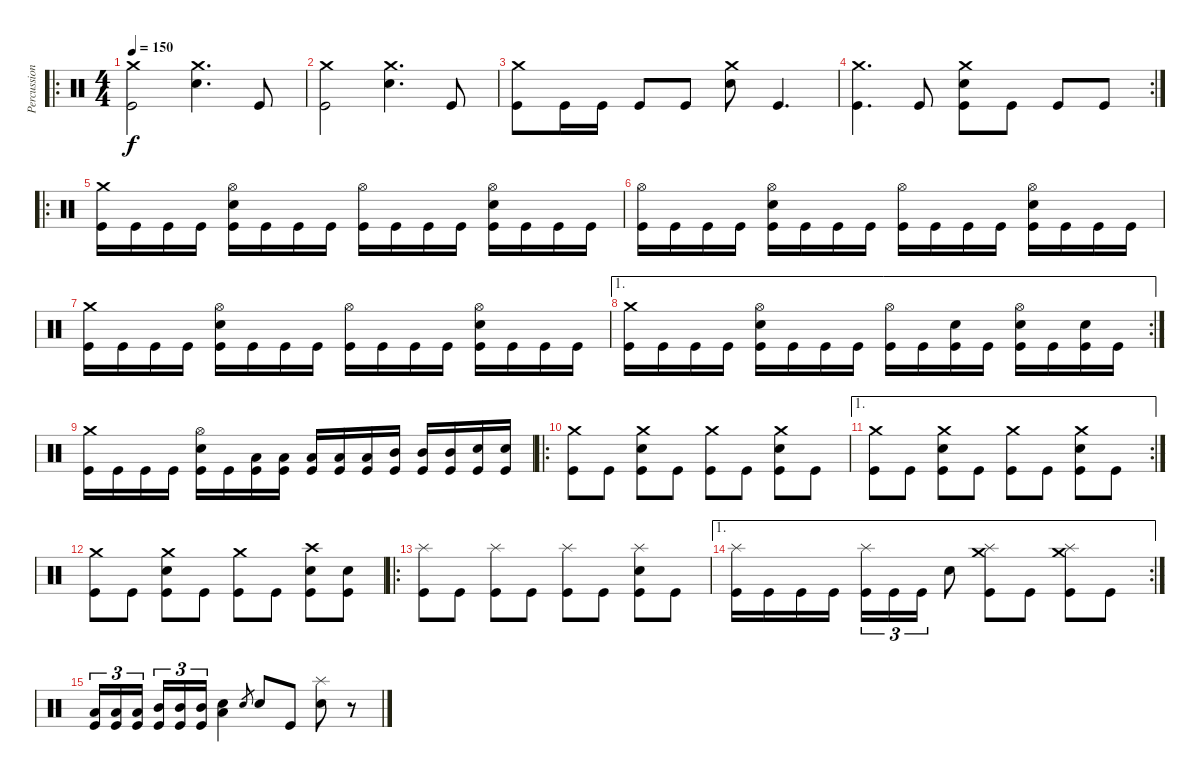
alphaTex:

\track ("Percussion" "Percussion") {instrument percussion}
\staff {score}
\articulation defaults
\ro
\ts (4 4)
\tempo 150
\clef neutral
\ks c
("Crash medium (hit)" "Kick (hit)").2{dy f} ("Crash medium (hit)" "Electric Snare (hit)").4{d} "Kick (hit)".8 |
("Crash medium (hit)" "Kick (hit)").2 ("Crash medium (hit)" "Electric Snare (hit)").4{d} "Kick (hit)".8 |
("Crash medium (hit)" "Kick (hit)").8 "Kick (hit)".16 "Kick (hit)".16 "Kick (hit)".8 "Kick (hit)".8 ("Crash medium (hit)" "Electric Snare (hit)").8 "Kick (hit)".4{d} |
\rc 2
("Crash medium (hit)" "Kick (hit)").4{d} "Kick (hit)".8 ("Crash medium (hit)" "Electric Snare (hit)" "Kick (hit)").8 "Kick (hit)".8 "Kick (hit)".8 "Kick (hit)".8 |
\ro
("Crash medium (hit)" "Kick (hit)").16 "Kick (hit)".16 "Kick (hit)".16 "Kick (hit)".16 ("Hi-Hat (open)" "Electric Snare (hit)" "Kick (hit)").16 "Kick (hit)".16 "Kick (hit)".16 "Kick (hit)".16 ("Hi-Hat (open)" "Kick (hit)").16 "Kick (hit)".16 "Kick (hit)".16 "Kick (hit)".16 ("Hi-Hat (open)" "Electric Snare (hit)" "Kick (hit)").16 "Kick (hit)".16 "Kick (hit)".16 "Kick (hit)".16 |
("Hi-Hat (open)" "Kick (hit)").16 "Kick (hit)".16 "Kick (hit)".16 "Kick (hit)".16 ("Hi-Hat (open)" "Electric Snare (hit)" "Kick (hit)").16 "Kick (hit)".16 "Kick (hit)".16 "Kick (hit)".16 ("Hi-Hat (open)" "Kick (hit)").16 "Kick (hit)".16 "Kick (hit)".16 "Kick (hit)".16 ("Hi-Hat (open)" "Electric Snare (hit)" "Kick (hit)").16 "Kick (hit)".16 "Kick (hit)".16 "Kick (hit)".16 |
("Crash medium (hit)" "Kick (hit)").16 "Kick (hit)".16 "Kick (hit)".16 "Kick (hit)".16 ("Hi-Hat (open)" "Electric Snare (hit)" "Kick (hit)").16 "Kick (hit)".16 "Kick (hit)".16 "Kick (hit)".16 ("Hi-Hat (open)" "Kick (hit)").16 "Kick (hit)".16 "Kick (hit)".16 "Kick (hit)".16 ("Hi-Hat (open)" "Electric Snare (hit)" "Kick (hit)").16 "Kick (hit)".16 "Kick (hit)".16 "Kick (hit)".16 |
\ae 1
\rc 2
("Crash medium (hit)" "Kick (hit)").16 "Kick (hit)".16 "Kick (hit)".16 "Kick (hit)".16 ("Hi-Hat (open)" "Electric Snare (hit)" "Kick (hit)").16 "Kick (hit)".16 "Kick (hit)".16 "Kick (hit)".16 ("Hi-Hat (open)" "Kick (hit)").16 "Kick (hit)".16 ("Electric Snare (hit)" "Kick (hit)").16 "Kick (hit)".16 ("Hi-Hat (open)" "Electric Snare (hit)" "Kick (hit)").16 "Kick (hit)".16 ("Electric Snare (hit)" "Kick (hit)").16 "Kick (hit)".16 |
("Crash medium (hit)" "Kick (hit)").16 "Kick (hit)".16 "Kick (hit)".16 "Kick (hit)".16 ("Hi-Hat (open)" "Electric Snare (hit)" "Kick (hit)").16 "Kick (hit)".16 ("Low Tom (hit)" "Kick (hit)").16 ("Low Tom (hit)" "Kick (hit)").16 ("Low Tom (hit)" "Kick (hit)").16 ("Low Tom (hit)" "Kick (hit)").16 ("Low Tom (hit)" "Kick (hit)").16 ("Mid Tom (hit)" "Kick (hit)").16 ("Mid Tom (hit)" "Kick (hit)").16 ("Mid Tom (hit)" "Kick (hit)").16 ("Electric Snare (hit)" "Kick (hit)").16 ("Electric Snare (hit)" "Kick (hit)").16 |
\ro
("Crash medium (hit)" "Kick (hit)").8 "Kick (hit)".8 ("Crash medium (hit)" "Electric Snare (hit)" "Kick (hit)").8 "Kick (hit)".8 ("Crash medium (hit)" "Kick (hit)").8 "Kick (hit)".8 ("Crash medium (hit)" "Electric Snare (hit)" "Kick (hit)").8 "Kick (hit)".8 |
\ae 1
\rc 2
("Crash medium (hit)" "Kick (hit)").8 "Kick (hit)".8 ("Crash medium (hit)" "Electric Snare (hit)" "Kick (hit)").8 "Kick (hit)".8 ("Crash medium (hit)" "Kick (hit)").8 "Kick (hit)".8 ("Crash medium (hit)" "Electric Snare (hit)" "Kick (hit)").8 "Kick (hit)".8 |
("Crash medium (hit)" "Kick (hit)").8 "Kick (hit)".8 ("Crash medium (hit)" "Electric Snare (hit)" "Kick (hit)").8 "Kick (hit)".8 ("Crash medium (hit)" "Kick (hit)").8 "Kick (hit)".8 ("Crash high (hit)" "Electric Snare (hit)" "Kick (hit)").8 ("Electric Snare (hit)" "Kick (hit)").8 |
\ro
("Splash (hit)" "Kick (hit)").8 "Kick (hit)".8 ("Splash (hit)" "Kick (hit)").8 "Kick (hit)".8 ("Splash (hit)" "Kick (hit)").8 "Kick (hit)".8 ("Splash (hit)" "Electric Snare (hit)" "Kick (hit)").8 "Kick (hit)".8 |
\ae 1
\rc 2
("Splash (hit)" "Kick (hit)").16 "Kick (hit)".16 "Kick (hit)".16 "Kick (hit)".16 ("Splash (hit)" "Kick (hit)").16{tu (3 2)} "Kick (hit)".16{tu (3 2)} "Kick (hit)".16{tu (3 2)} "Electric Snare (hit)".8 ("Splash (hit)" "Crash medium (hit)" "Kick (hit)").8 "Kick (hit)".8 ("Splash (hit)" "Crash medium (hit)" "Kick (hit)").8 "Kick (hit)".8 |
("Low Tom (hit)" "Kick (hit)").16{tu (3 2)} ("Low Tom (hit)" "Kick (hit)").16{tu (3 2)} ("Low Tom (hit)" "Kick (hit)").16{tu (3 2) beam splitsecondary} ("Mid Tom (hit)" "Kick (hit)").16{tu (3 2)} ("Mid Tom (hit)" "Kick (hit)").16{tu (3 2)} ("Mid Tom (hit)" "Kick (hit)").16{tu (3 2)} ("Electric Snare (hit)" "Low Tom (hit)").4 "Electric Snare (hit)".8{gr} "Electric Snare (hit)".8 "Kick (hit)".8 ("Splash (hit)" "Electric Snare (hit)").8 r.8
